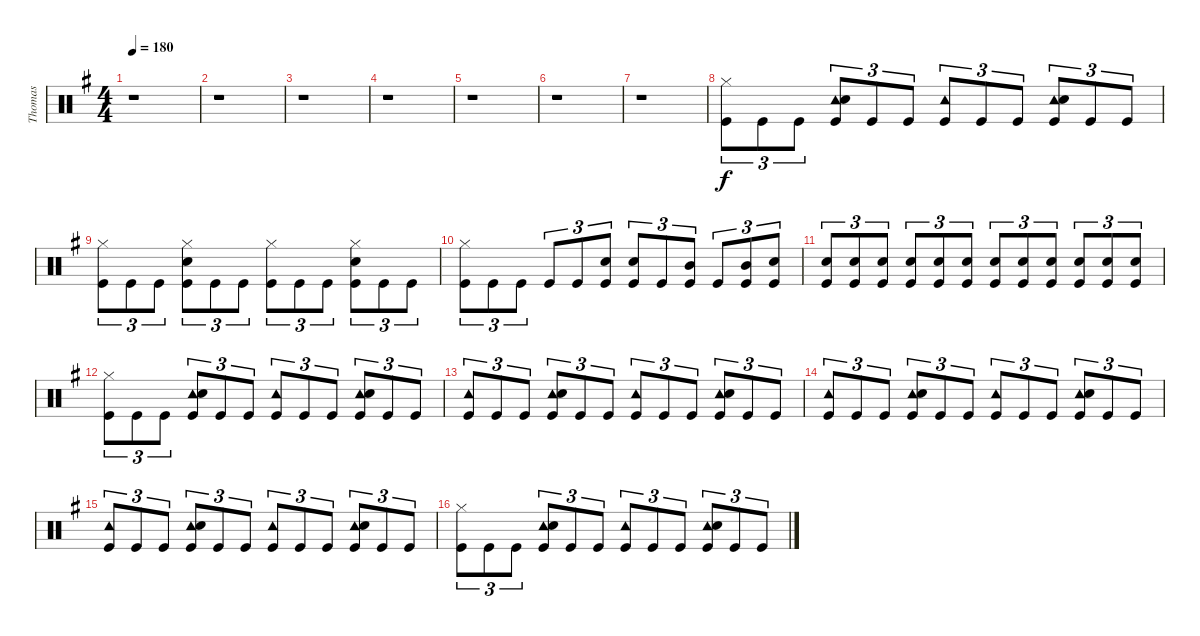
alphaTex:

\track ("Thomas" "Thomas") {instrument percussion}
\staff {score}
\articulation defaults
\ts (4 4)
\tempo 180
\clef neutral
\ks g
r.1{dy f} |
r.1 |
r.1 |
r.1 |
r.1 |
r.1 |
r.1 |
("Hi-Hat (closed)" "Kick (hit)").8{tu (3 2)} "Kick (hit)".8{tu (3 2)} "Kick (hit)".8{tu (3 2)} ("Tambourine (hit)" "Snare (hit) 2" "Kick (hit)").8{tu (3 2)} "Kick (hit)".8{tu (3 2)} "Kick (hit)".8{tu (3 2)} ("Tambourine (hit)" "Kick (hit)").8{tu (3 2)} "Kick (hit)".8{tu (3 2)} "Kick (hit)".8{tu (3 2)} ("Tambourine (hit)" "Snare (hit) 2" "Kick (hit)").8{tu (3 2)} "Kick (hit)".8{tu (3 2)} "Kick (hit)".8{tu (3 2)} |
("Hi-Hat (closed)" "Kick (hit)").8{tu (3 2)} "Kick (hit)".8{tu (3 2)} "Kick (hit)".8{tu (3 2)} ("Hi-Hat (closed)" "Snare (hit) 2" "Kick (hit)").8{tu (3 2)} "Kick (hit)".8{tu (3 2)} "Kick (hit)".8{tu (3 2)} ("Hi-Hat (closed)" "Kick (hit)").8{tu (3 2)} "Kick (hit)".8{tu (3 2)} "Kick (hit)".8{tu (3 2)} ("Hi-Hat (closed)" "Snare (hit) 2" "Kick (hit)").8{tu (3 2)} "Kick (hit)".8{tu (3 2)} "Kick (hit)".8{tu (3 2)} |
("Hi-Hat (closed)" "Kick (hit)").8{tu (3 2)} "Kick (hit)".8{tu (3 2)} "Kick (hit)".8{tu (3 2)} "Kick (hit)".8{tu (3 2)} "Kick (hit)".8{tu (3 2)} ("Snare (hit) 2" "Kick (hit)").8{tu (3 2)} ("Snare (hit) 2" "Kick (hit)").8{tu (3 2)} "Kick (hit)".8{tu (3 2)} ("Mid Tom (hit)" "Kick (hit)").8{tu (3 2)} "Kick (hit)".8{tu (3 2)} ("Mid Tom (hit)" "Kick (hit)").8{tu (3 2)} ("Snare (hit) 2" "Kick (hit)").8{tu (3 2)} |
("Snare (hit) 2" "Kick (hit)").8{tu (3 2)} ("Snare (hit) 2" "Kick (hit)").8{tu (3 2)} ("Snare (hit) 2" "Kick (hit)").8{tu (3 2)} ("Snare (hit) 2" "Kick (hit)").8{tu (3 2)} ("Snare (hit) 2" "Kick (hit)").8{tu (3 2)} ("Snare (hit) 2" "Kick (hit)").8{tu (3 2)} ("Snare (hit) 2" "Kick (hit)").8{tu (3 2)} ("Snare (hit) 2" "Kick (hit)").8{tu (3 2)} ("Snare (hit) 2" "Kick (hit)").8{tu (3 2)} ("Snare (hit) 2" "Kick (hit)").8{tu (3 2)} ("Snare (hit) 2" "Kick (hit)").8{tu (3 2)} ("Snare (hit) 2" "Kick (hit)").8{tu (3 2)} |
("Hi-Hat (closed)" "Kick (hit)").8{tu (3 2)} "Kick (hit)".8{tu (3 2)} "Kick (hit)".8{tu (3 2)} ("Tambourine (hit)" "Snare (hit) 2" "Kick (hit)").8{tu (3 2)} "Kick (hit)".8{tu (3 2)} "Kick (hit)".8{tu (3 2)} ("Tambourine (hit)" "Kick (hit)").8{tu (3 2)} "Kick (hit)".8{tu (3 2)} "Kick (hit)".8{tu (3 2)} ("Tambourine (hit)" "Snare (hit) 2" "Kick (hit)").8{tu (3 2)} "Kick (hit)".8{tu (3 2)} "Kick (hit)".8{tu (3 2)} |
("Tambourine (hit)" "Kick (hit)").8{tu (3 2)} "Kick (hit)".8{tu (3 2)} "Kick (hit)".8{tu (3 2)} ("Tambourine (hit)" "Snare (hit) 2" "Kick (hit)").8{tu (3 2)} "Kick (hit)".8{tu (3 2)} "Kick (hit)".8{tu (3 2)} ("Tambourine (hit)" "Kick (hit)").8{tu (3 2)} "Kick (hit)".8{tu (3 2)} "Kick (hit)".8{tu (3 2)} ("Tambourine (hit)" "Snare (hit) 2" "Kick (hit)").8{tu (3 2)} "Kick (hit)".8{tu (3 2)} "Kick (hit)".8{tu (3 2)} |
("Tambourine (hit)" "Kick (hit)").8{tu (3 2)} "Kick (hit)".8{tu (3 2)} "Kick (hit)".8{tu (3 2)} ("Tambourine (hit)" "Snare (hit) 2" "Kick (hit)").8{tu (3 2)} "Kick (hit)".8{tu (3 2)} "Kick (hit)".8{tu (3 2)} ("Tambourine (hit)" "Kick (hit)").8{tu (3 2)} "Kick (hit)".8{tu (3 2)} "Kick (hit)".8{tu (3 2)} ("Tambourine (hit)" "Snare (hit) 2" "Kick (hit)").8{tu (3 2)} "Kick (hit)".8{tu (3 2)} "Kick (hit)".8{tu (3 2)} |
("Tambourine (hit)" "Kick (hit)").8{tu (3 2)} "Kick (hit)".8{tu (3 2)} "Kick (hit)".8{tu (3 2)} ("Tambourine (hit)" "Snare (hit) 2" "Kick (hit)").8{tu (3 2)} "Kick (hit)".8{tu (3 2)} "Kick (hit)".8{tu (3 2)} ("Tambourine (hit)" "Kick (hit)").8{tu (3 2)} "Kick (hit)".8{tu (3 2)} "Kick (hit)".8{tu (3 2)} ("Tambourine (hit)" "Snare (hit) 2" "Kick (hit)").8{tu (3 2)} "Kick (hit)".8{tu (3 2)} "Kick (hit)".8{tu (3 2)} |
("Hi-Hat (closed)" "Kick (hit)").8{tu (3 2)} "Kick (hit)".8{tu (3 2)} "Kick (hit)".8{tu (3 2)} ("Tambourine (hit)" "Snare (hit) 2" "Kick (hit)").8{tu (3 2)} "Kick (hit)".8{tu (3 2)} "Kick (hit)".8{tu (3 2)} ("Tambourine (hit)" "Kick (hit)").8{tu (3 2)} "Kick (hit)".8{tu (3 2)} "Kick (hit)".8{tu (3 2)} ("Tambourine (hit)" "Snare (hit) 2" "Kick (hit)").8{tu (3 2)} "Kick (hit)".8{tu (3 2)} "Kick (hit)".8{tu (3 2)}
